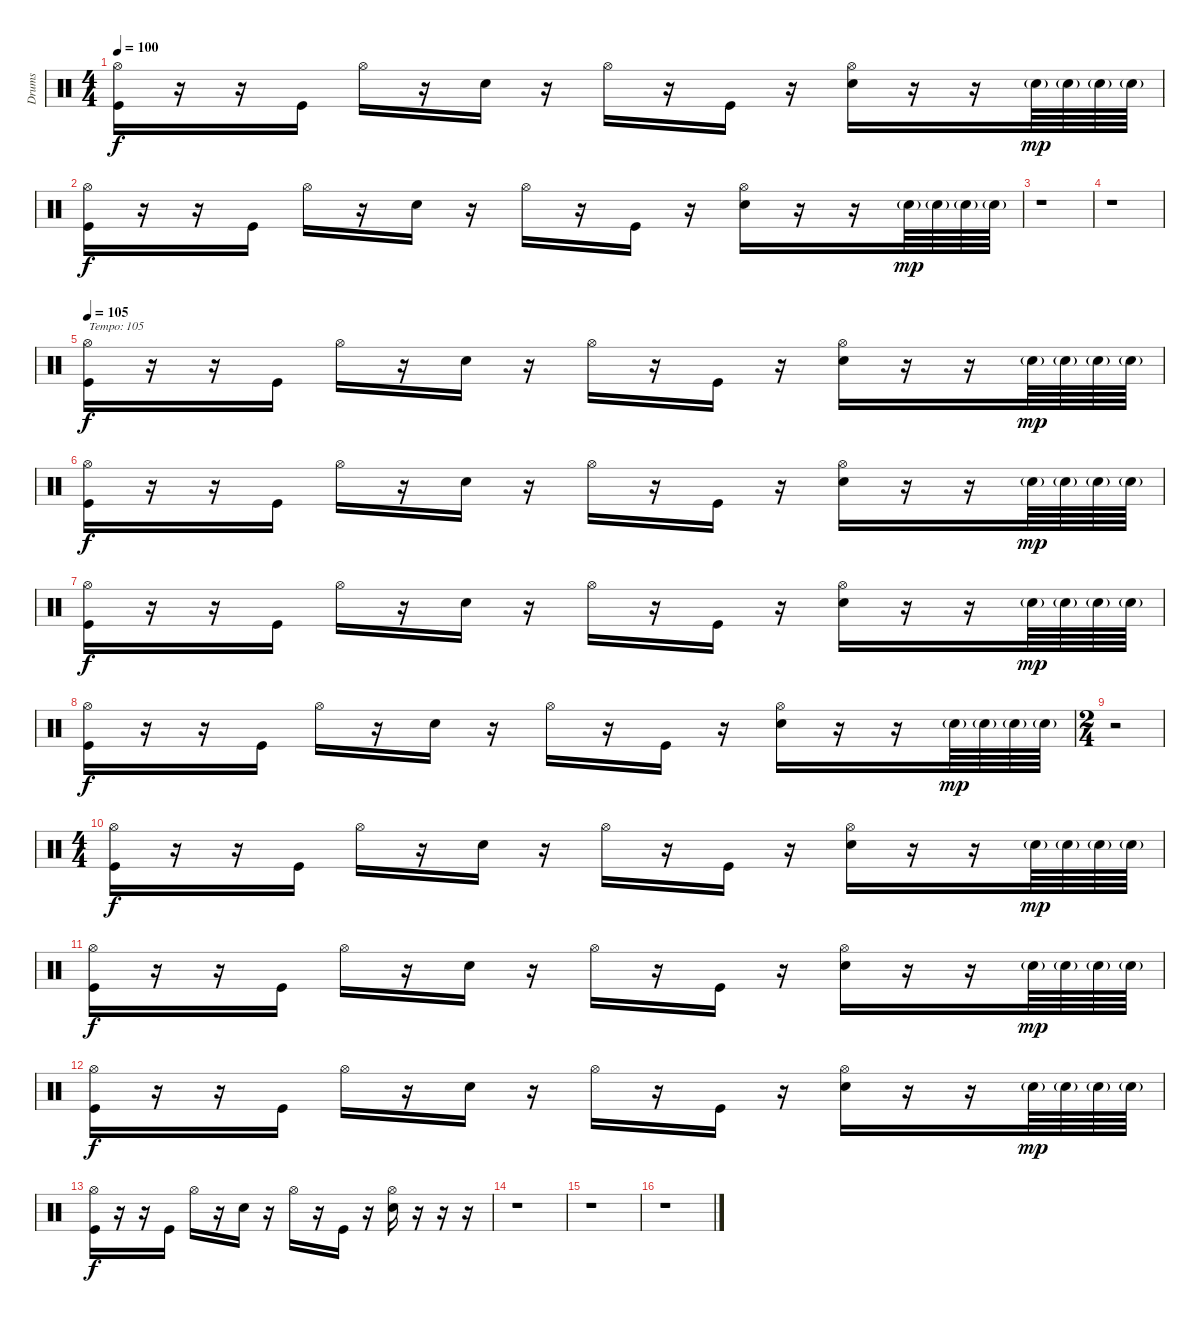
\track ("Drums" "Drums") {instrument percussion}
\staff {score}
\articulation defaults
\ts (4 4)
\tempo 100
\clef neutral
\ks c
("Hi-Hat (open)" "Kick (hit)").16{dy f} r.16 r.16 "Kick (hit)".16 "Hi-Hat (open)".16 r.16 "Snare (hit) 2".16 r.16 "Hi-Hat (open)".16 r.16 "Kick (hit)".16 r.16 ("Hi-Hat (open)" "Snare (hit) 2").16 r.16 r.16 "Snare (hit) 2"{g}.64{dy mp} "Snare (hit) 2"{g}.64 "Snare (hit) 2"{g}.64 "Snare (hit) 2"{g}.64 |
("Hi-Hat (open)" "Kick (hit)").16{dy f} r.16 r.16 "Kick (hit)".16 "Hi-Hat (open)".16 r.16 "Snare (hit) 2".16 r.16 "Hi-Hat (open)".16 r.16 "Kick (hit)".16 r.16 ("Hi-Hat (open)" "Snare (hit) 2").16 r.16 r.16 "Snare (hit) 2"{g}.64{dy mp} "Snare (hit) 2"{g}.64 "Snare (hit) 2"{g}.64 "Snare (hit) 2"{g}.64 |
r.1 |
r.1 |
\tempo 105
("Hi-Hat (open)" "Kick (hit)").16{txt "Tempo: 105" dy f} r.16 r.16 "Kick (hit)".16 "Hi-Hat (open)".16 r.16 "Snare (hit) 2".16 r.16 "Hi-Hat (open)".16 r.16 "Kick (hit)".16 r.16 ("Hi-Hat (open)" "Snare (hit) 2").16 r.16 r.16 "Snare (hit) 2"{g}.64{dy mp} "Snare (hit) 2"{g}.64 "Snare (hit) 2"{g}.64 "Snare (hit) 2"{g}.64 |
("Hi-Hat (open)" "Kick (hit)").16{dy f} r.16 r.16 "Kick (hit)".16 "Hi-Hat (open)".16 r.16 "Snare (hit) 2".16 r.16 "Hi-Hat (open)".16 r.16 "Kick (hit)".16 r.16 ("Hi-Hat (open)" "Snare (hit) 2").16 r.16 r.16 "Snare (hit) 2"{g}.64{dy mp} "Snare (hit) 2"{g}.64 "Snare (hit) 2"{g}.64 "Snare (hit) 2"{g}.64 |
("Hi-Hat (open)" "Kick (hit)").16{dy f} r.16 r.16 "Kick (hit)".16 "Hi-Hat (open)".16 r.16 "Snare (hit) 2".16 r.16 "Hi-Hat (open)".16 r.16 "Kick (hit)".16 r.16 ("Hi-Hat (open)" "Snare (hit) 2").16 r.16 r.16 "Snare (hit) 2"{g}.64{dy mp} "Snare (hit) 2"{g}.64 "Snare (hit) 2"{g}.64 "Snare (hit) 2"{g}.64 |
("Hi-Hat (open)" "Kick (hit)").16{dy f} r.16 r.16 "Kick (hit)".16 "Hi-Hat (open)".16 r.16 "Snare (hit) 2".16 r.16 "Hi-Hat (open)".16 r.16 "Kick (hit)".16 r.16 ("Hi-Hat (open)" "Snare (hit) 2").16 r.16 r.16 "Snare (hit) 2"{g}.64{dy mp} "Snare (hit) 2"{g}.64 "Snare (hit) 2"{g}.64 "Snare (hit) 2"{g}.64 |
\ts (2 4)
r.2 |
\ts (4 4)
("Hi-Hat (open)" "Kick (hit)").16{dy f} r.16 r.16 "Kick (hit)".16 "Hi-Hat (open)".16 r.16 "Snare (hit) 2".16 r.16 "Hi-Hat (open)".16 r.16 "Kick (hit)".16 r.16 ("Hi-Hat (open)" "Snare (hit) 2").16 r.16 r.16 "Snare (hit) 2"{g}.64{dy mp} "Snare (hit) 2"{g}.64 "Snare (hit) 2"{g}.64 "Snare (hit) 2"{g}.64 |
("Hi-Hat (open)" "Kick (hit)").16{dy f} r.16 r.16 "Kick (hit)".16 "Hi-Hat (open)".16 r.16 "Snare (hit) 2".16 r.16 "Hi-Hat (open)".16 r.16 "Kick (hit)".16 r.16 ("Hi-Hat (open)" "Snare (hit) 2").16 r.16 r.16 "Snare (hit) 2"{g}.64{dy mp} "Snare (hit) 2"{g}.64 "Snare (hit) 2"{g}.64 "Snare (hit) 2"{g}.64 |
("Hi-Hat (open)" "Kick (hit)").16{dy f} r.16 r.16 "Kick (hit)".16 "Hi-Hat (open)".16 r.16 "Snare (hit) 2".16 r.16 "Hi-Hat (open)".16 r.16 "Kick (hit)".16 r.16 ("Hi-Hat (open)" "Snare (hit) 2").16 r.16 r.16 "Snare (hit) 2"{g}.64{dy mp} "Snare (hit) 2"{g}.64 "Snare (hit) 2"{g}.64 "Snare (hit) 2"{g}.64 |
("Hi-Hat (open)" "Kick (hit)").16{dy f} r.16 r.16 "Kick (hit)".16 "Hi-Hat (open)".16 r.16 "Snare (hit) 2".16 r.16 "Hi-Hat (open)".16 r.16 "Kick (hit)".16 r.16 ("Hi-Hat (open)" "Snare (hit) 2").16 r.16 r.16 r.16 |
r.1 |
r.1 |
r.1
